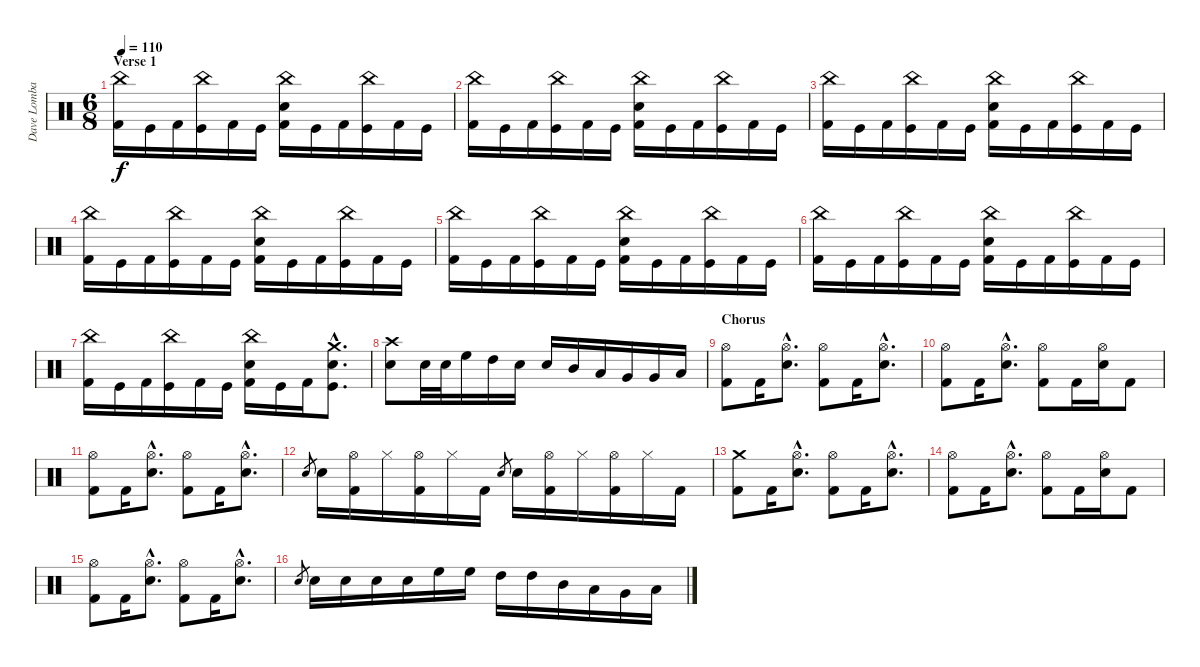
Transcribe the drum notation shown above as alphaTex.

\track ("Dave Lombardo (drums)" "Dave Lomba") {instrument percussion}
\staff {score}
\articulation defaults
\ts (6 8)
\section ("" "Verse 1")
\tempo 110
\clef neutral
\ks c
("China (hit)" "Kick (hit) 2").16{dy f} "Kick (hit)".16 "Kick (hit) 2".16 ("China (hit)" "Kick (hit)").16 "Kick (hit) 2".16 "Kick (hit)".16 ("China (hit)" "Snare (hit) 2" "Kick (hit) 2").16 "Kick (hit)".16 "Kick (hit) 2".16 ("China (hit)" "Kick (hit)").16 "Kick (hit) 2".16 "Kick (hit)".16 |
("China (hit)" "Kick (hit) 2").16 "Kick (hit)".16 "Kick (hit) 2".16 ("China (hit)" "Kick (hit)").16 "Kick (hit) 2".16 "Kick (hit)".16 ("China (hit)" "Snare (hit) 2" "Kick (hit) 2").16 "Kick (hit)".16 "Kick (hit) 2".16 ("China (hit)" "Kick (hit)").16 "Kick (hit) 2".16 "Kick (hit)".16 |
("China (hit)" "Kick (hit) 2").16 "Kick (hit)".16 "Kick (hit) 2".16 ("China (hit)" "Kick (hit)").16 "Kick (hit) 2".16 "Kick (hit)".16 ("China (hit)" "Snare (hit) 2" "Kick (hit) 2").16 "Kick (hit)".16 "Kick (hit) 2".16 ("China (hit)" "Kick (hit)").16 "Kick (hit) 2".16 "Kick (hit)".16 |
("China (hit)" "Kick (hit) 2").16 "Kick (hit)".16 "Kick (hit) 2".16 ("China (hit)" "Kick (hit)").16 "Kick (hit) 2".16 "Kick (hit)".16 ("China (hit)" "Snare (hit) 2" "Kick (hit) 2").16 "Kick (hit)".16 "Kick (hit) 2".16 ("China (hit)" "Kick (hit)").16 "Kick (hit) 2".16 "Kick (hit)".16 |
("China (hit)" "Kick (hit) 2").16 "Kick (hit)".16 "Kick (hit) 2".16 ("China (hit)" "Kick (hit)").16 "Kick (hit) 2".16 "Kick (hit)".16 ("China (hit)" "Snare (hit) 2" "Kick (hit) 2").16 "Kick (hit)".16 "Kick (hit) 2".16 ("China (hit)" "Kick (hit)").16 "Kick (hit) 2".16 "Kick (hit)".16 |
("China (hit)" "Kick (hit) 2").16 "Kick (hit)".16 "Kick (hit) 2".16 ("China (hit)" "Kick (hit)").16 "Kick (hit) 2".16 "Kick (hit)".16 ("China (hit)" "Snare (hit) 2" "Kick (hit) 2").16 "Kick (hit)".16 "Kick (hit) 2".16 ("China (hit)" "Kick (hit)").16 "Kick (hit) 2".16 "Kick (hit)".16 |
("China (hit)" "Kick (hit) 2").16 "Kick (hit)".16 "Kick (hit) 2".16 ("China (hit)" "Kick (hit)").16 "Kick (hit) 2".16 "Kick (hit)".16 ("China (hit)" "Snare (hit) 2" "Kick (hit) 2").16 "Kick (hit)".16 "Kick (hit) 2".16 ("Crash medium (hit)"{hac} "Snare (hit) 2"{hac} "Kick (hit)"{hac}).8{d} |
("Crash high (hit)" "Snare (hit) 2").8 "Snare (hit) 2".32 "Snare (hit) 2".32 "High Floor Tom (hit)".16 "High Tom (hit)".16 "Snare (hit) 2".16 "Snare (hit) 2".16 "Mid Tom (hit)".16 "Low Tom (hit)".16 "Very Low Tom (hit)".16 "Very Low Tom (hit)".16 "Low Floor Tom (hit)".16 |
\section ("" "Chorus")
("Hi-Hat (open)" "Kick (hit) 2").8 "Kick (hit) 2".16 ("Hi-Hat (open)"{hac} "Snare (hit) 2"{hac}).8{d} ("Hi-Hat (open)" "Kick (hit) 2").8 "Kick (hit) 2".16 ("Hi-Hat (open)"{hac} "Snare (hit) 2"{hac}).8{d} |
("Hi-Hat (open)" "Kick (hit) 2").8 "Kick (hit) 2".16 ("Hi-Hat (open)"{hac} "Snare (hit) 2"{hac}).8{d} ("Hi-Hat (open)" "Kick (hit) 2").8 "Kick (hit) 2".16 ("Hi-Hat (open)" "Snare (hit) 2").16 "Kick (hit) 2".8 |
("Hi-Hat (open)" "Kick (hit) 2").8 "Kick (hit) 2".16 ("Hi-Hat (open)"{hac} "Snare (hit) 2"{hac}).8{d} ("Hi-Hat (open)" "Kick (hit) 2").8 "Kick (hit) 2".16 ("Hi-Hat (open)"{hac} "Snare (hit) 2"{hac}).8{d} |
"Snare (hit) 2".8{gr} "Snare (hit) 2".16 ("Hi-Hat (open)" "Kick (hit) 2").16 "Hi-Hat (closed)".16 ("Hi-Hat (open)" "Kick (hit) 2").16 "Hi-Hat (closed)".16 "Kick (hit) 2".16 "Snare (hit) 2".8{gr} "Snare (hit) 2".16 ("Hi-Hat (open)" "Kick (hit) 2").16 "Hi-Hat (closed)".16 ("Hi-Hat (open)" "Kick (hit) 2").16 "Hi-Hat (closed)".16 "Kick (hit) 2".16 |
("Crash medium (hit)" "Kick (hit) 2").8 "Kick (hit) 2".16 ("Hi-Hat (open)"{hac} "Snare (hit) 2"{hac}).8{d} ("Hi-Hat (open)" "Kick (hit) 2").8 "Kick (hit) 2".16 ("Hi-Hat (open)"{hac} "Snare (hit) 2"{hac}).8{d} |
("Hi-Hat (open)" "Kick (hit) 2").8 "Kick (hit) 2".16 ("Hi-Hat (open)"{hac} "Snare (hit) 2"{hac}).8{d} ("Hi-Hat (open)" "Kick (hit) 2").8 "Kick (hit) 2".16 ("Hi-Hat (open)" "Snare (hit) 2").16 "Kick (hit) 2".8 |
("Hi-Hat (open)" "Kick (hit) 2").8 "Kick (hit) 2".16 ("Hi-Hat (open)"{hac} "Snare (hit) 2"{hac}).8{d} ("Hi-Hat (open)" "Kick (hit) 2").8 "Kick (hit) 2".16 ("Hi-Hat (open)"{hac} "Snare (hit) 2"{hac}).8{d} |
"Snare (hit) 2".8{gr} "Snare (hit) 2".16 "Snare (hit) 2".16 "Snare (hit) 2".16 "Snare (hit) 2".16 "High Floor Tom (hit)".16 "High Floor Tom (hit)".16 "High Tom (hit)".16 "High Tom (hit)".16 "Mid Tom (hit)".16 "Low Tom (hit)".16 "Very Low Tom (hit)".16 "Low Floor Tom (hit)".16
